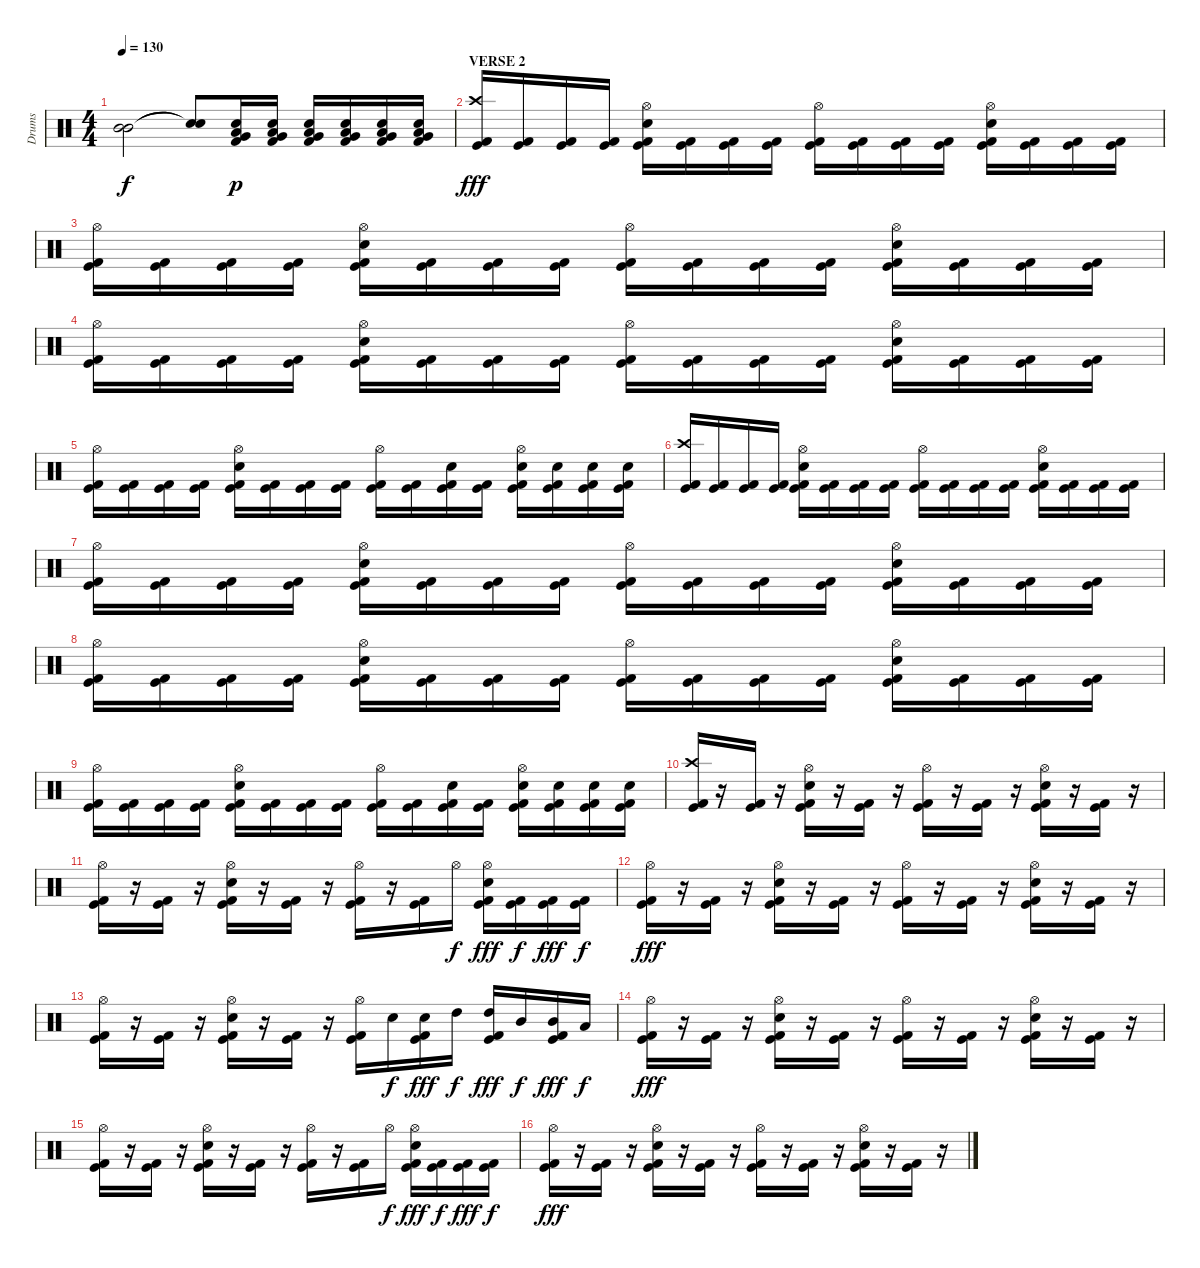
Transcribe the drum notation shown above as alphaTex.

\track ("Drums" "Drums") {instrument percussion}
\staff {score}
\articulation defaults
\ts (4 4)
\tempo 130
\clef neutral
\ks c
("Mid Tom (hit)" "Mid Tom (hit)").2{dy f} ("Snare (hit)"{t} "Snare (hit)"{t}).8 ("Kick (hit) 2" "Electric Snare (hit)" "Low Floor Tom (hit)" "Very Low Tom (hit)").16{dy p} ("Kick (hit) 2" "Electric Snare (hit)" "Low Floor Tom (hit)" "Very Low Tom (hit)").16 ("Kick (hit) 2" "Electric Snare (hit)" "Low Floor Tom (hit)" "Very Low Tom (hit)").16 ("Kick (hit) 2" "Electric Snare (hit)" "Low Floor Tom (hit)" "Very Low Tom (hit)").16 ("Kick (hit) 2" "Electric Snare (hit)" "Low Floor Tom (hit)" "Very Low Tom (hit)").16 ("Kick (hit) 2" "Electric Snare (hit)" "Low Floor Tom (hit)" "Very Low Tom (hit)").16 |
\section ("" "VERSE 2")
("Crash high (hit)" "Kick (hit)" "Kick (hit) 2").16{dy fff} ("Kick (hit)" "Kick (hit) 2").16 ("Kick (hit)" "Kick (hit) 2").16 ("Kick (hit)" "Kick (hit) 2").16 ("Hi-Hat (open)" "Electric Snare (hit)" "Kick (hit)" "Kick (hit) 2").16 ("Kick (hit)" "Kick (hit) 2").16 ("Kick (hit)" "Kick (hit) 2").16 ("Kick (hit)" "Kick (hit) 2").16 ("Hi-Hat (open)" "Kick (hit)" "Kick (hit) 2").16 ("Kick (hit)" "Kick (hit) 2").16 ("Kick (hit)" "Kick (hit) 2").16 ("Kick (hit)" "Kick (hit) 2").16 ("Hi-Hat (open)" "Electric Snare (hit)" "Kick (hit)" "Kick (hit) 2").16 ("Kick (hit)" "Kick (hit) 2").16 ("Kick (hit)" "Kick (hit) 2").16 ("Kick (hit)" "Kick (hit) 2").16 |
("Hi-Hat (open)" "Kick (hit)" "Kick (hit) 2").16 ("Kick (hit)" "Kick (hit) 2").16 ("Kick (hit)" "Kick (hit) 2").16 ("Kick (hit)" "Kick (hit) 2").16 ("Hi-Hat (open)" "Electric Snare (hit)" "Kick (hit)" "Kick (hit) 2").16 ("Kick (hit)" "Kick (hit) 2").16 ("Kick (hit)" "Kick (hit) 2").16 ("Kick (hit)" "Kick (hit) 2").16 ("Hi-Hat (open)" "Kick (hit)" "Kick (hit) 2").16 ("Kick (hit)" "Kick (hit) 2").16 ("Kick (hit)" "Kick (hit) 2").16 ("Kick (hit)" "Kick (hit) 2").16 ("Hi-Hat (open)" "Electric Snare (hit)" "Kick (hit)" "Kick (hit) 2").16 ("Kick (hit)" "Kick (hit) 2").16 ("Kick (hit)" "Kick (hit) 2").16 ("Kick (hit)" "Kick (hit) 2").16 |
("Hi-Hat (open)" "Kick (hit)" "Kick (hit) 2").16 ("Kick (hit)" "Kick (hit) 2").16 ("Kick (hit)" "Kick (hit) 2").16 ("Kick (hit)" "Kick (hit) 2").16 ("Hi-Hat (open)" "Electric Snare (hit)" "Kick (hit)" "Kick (hit) 2").16 ("Kick (hit)" "Kick (hit) 2").16 ("Kick (hit)" "Kick (hit) 2").16 ("Kick (hit)" "Kick (hit) 2").16 ("Hi-Hat (open)" "Kick (hit)" "Kick (hit) 2").16 ("Kick (hit)" "Kick (hit) 2").16 ("Kick (hit)" "Kick (hit) 2").16 ("Kick (hit)" "Kick (hit) 2").16 ("Hi-Hat (open)" "Electric Snare (hit)" "Kick (hit)" "Kick (hit) 2").16 ("Kick (hit)" "Kick (hit) 2").16 ("Kick (hit)" "Kick (hit) 2").16 ("Kick (hit)" "Kick (hit) 2").16 |
("Hi-Hat (open)" "Kick (hit)" "Kick (hit) 2").16 ("Kick (hit)" "Kick (hit) 2").16 ("Kick (hit)" "Kick (hit) 2").16 ("Kick (hit)" "Kick (hit) 2").16 ("Hi-Hat (open)" "Electric Snare (hit)" "Kick (hit)" "Kick (hit) 2").16 ("Kick (hit)" "Kick (hit) 2").16 ("Kick (hit)" "Kick (hit) 2").16 ("Kick (hit)" "Kick (hit) 2").16 ("Hi-Hat (open)" "Kick (hit)" "Kick (hit) 2").16 ("Kick (hit)" "Kick (hit) 2").16 ("Electric Snare (hit)" "Kick (hit)" "Kick (hit) 2").16 ("Kick (hit)" "Kick (hit) 2").16 ("Hi-Hat (open)" "Electric Snare (hit)" "Kick (hit)" "Kick (hit) 2").16 ("Electric Snare (hit)" "Kick (hit)" "Kick (hit) 2").16 ("Electric Snare (hit)" "Kick (hit)" "Kick (hit) 2").16 ("Electric Snare (hit)" "Kick (hit)" "Kick (hit) 2").16 |
("Crash high (hit)" "Kick (hit)" "Kick (hit) 2").16 ("Kick (hit)" "Kick (hit) 2").16 ("Kick (hit)" "Kick (hit) 2").16 ("Kick (hit)" "Kick (hit) 2").16 ("Hi-Hat (open)" "Electric Snare (hit)" "Kick (hit)" "Kick (hit) 2").16 ("Kick (hit)" "Kick (hit) 2").16 ("Kick (hit)" "Kick (hit) 2").16 ("Kick (hit)" "Kick (hit) 2").16 ("Hi-Hat (open)" "Kick (hit)" "Kick (hit) 2").16 ("Kick (hit)" "Kick (hit) 2").16 ("Kick (hit)" "Kick (hit) 2").16 ("Kick (hit)" "Kick (hit) 2").16 ("Hi-Hat (open)" "Electric Snare (hit)" "Kick (hit)" "Kick (hit) 2").16 ("Kick (hit)" "Kick (hit) 2").16 ("Kick (hit)" "Kick (hit) 2").16 ("Kick (hit)" "Kick (hit) 2").16 |
("Hi-Hat (open)" "Kick (hit)" "Kick (hit) 2").16 ("Kick (hit)" "Kick (hit) 2").16 ("Kick (hit)" "Kick (hit) 2").16 ("Kick (hit)" "Kick (hit) 2").16 ("Hi-Hat (open)" "Electric Snare (hit)" "Kick (hit)" "Kick (hit) 2").16 ("Kick (hit)" "Kick (hit) 2").16 ("Kick (hit)" "Kick (hit) 2").16 ("Kick (hit)" "Kick (hit) 2").16 ("Hi-Hat (open)" "Kick (hit)" "Kick (hit) 2").16 ("Kick (hit)" "Kick (hit) 2").16 ("Kick (hit)" "Kick (hit) 2").16 ("Kick (hit)" "Kick (hit) 2").16 ("Hi-Hat (open)" "Electric Snare (hit)" "Kick (hit)" "Kick (hit) 2").16 ("Kick (hit)" "Kick (hit) 2").16 ("Kick (hit)" "Kick (hit) 2").16 ("Kick (hit)" "Kick (hit) 2").16 |
("Hi-Hat (open)" "Kick (hit)" "Kick (hit) 2").16 ("Kick (hit)" "Kick (hit) 2").16 ("Kick (hit)" "Kick (hit) 2").16 ("Kick (hit)" "Kick (hit) 2").16 ("Hi-Hat (open)" "Electric Snare (hit)" "Kick (hit)" "Kick (hit) 2").16 ("Kick (hit)" "Kick (hit) 2").16 ("Kick (hit)" "Kick (hit) 2").16 ("Kick (hit)" "Kick (hit) 2").16 ("Hi-Hat (open)" "Kick (hit)" "Kick (hit) 2").16 ("Kick (hit)" "Kick (hit) 2").16 ("Kick (hit)" "Kick (hit) 2").16 ("Kick (hit)" "Kick (hit) 2").16 ("Hi-Hat (open)" "Electric Snare (hit)" "Kick (hit)" "Kick (hit) 2").16 ("Kick (hit)" "Kick (hit) 2").16 ("Kick (hit)" "Kick (hit) 2").16 ("Kick (hit)" "Kick (hit) 2").16 |
("Hi-Hat (open)" "Kick (hit)" "Kick (hit) 2").16 ("Kick (hit)" "Kick (hit) 2").16 ("Kick (hit)" "Kick (hit) 2").16 ("Kick (hit)" "Kick (hit) 2").16 ("Hi-Hat (open)" "Electric Snare (hit)" "Kick (hit)" "Kick (hit) 2").16 ("Kick (hit)" "Kick (hit) 2").16 ("Kick (hit)" "Kick (hit) 2").16 ("Kick (hit)" "Kick (hit) 2").16 ("Hi-Hat (open)" "Kick (hit)" "Kick (hit) 2").16 ("Kick (hit)" "Kick (hit) 2").16 ("Electric Snare (hit)" "Kick (hit)" "Kick (hit) 2").16 ("Kick (hit)" "Kick (hit) 2").16 ("Hi-Hat (open)" "Electric Snare (hit)" "Kick (hit)" "Kick (hit) 2").16 ("Electric Snare (hit)" "Kick (hit)" "Kick (hit) 2").16 ("Electric Snare (hit)" "Kick (hit)" "Kick (hit) 2").16 ("Electric Snare (hit)" "Kick (hit)" "Kick (hit) 2").16 |
("Crash high (hit)" "Kick (hit)" "Kick (hit) 2").16 r.16 ("Kick (hit)" "Kick (hit) 2").16 r.16 ("Hi-Hat (open)" "Electric Snare (hit)" "Kick (hit)" "Kick (hit) 2").16 r.16 ("Kick (hit)" "Kick (hit) 2").16 r.16 ("Hi-Hat (open)" "Kick (hit)" "Kick (hit) 2").16 r.16 ("Kick (hit)" "Kick (hit) 2").16 r.16 ("Hi-Hat (open)" "Electric Snare (hit)" "Kick (hit)" "Kick (hit) 2").16 r.16 ("Kick (hit)" "Kick (hit) 2").16 r.16 |
("Hi-Hat (open)" "Kick (hit)" "Kick (hit) 2").16 r.16 ("Kick (hit)" "Kick (hit) 2").16 r.16 ("Hi-Hat (open)" "Electric Snare (hit)" "Kick (hit)" "Kick (hit) 2").16 r.16 ("Kick (hit)" "Kick (hit) 2").16 r.16 ("Hi-Hat (open)" "Kick (hit)" "Kick (hit) 2").16 r.16 ("Kick (hit)" "Kick (hit) 2").16 "Hi-Hat (open)".16{dy f} ("Hi-Hat (open)" "Electric Snare (hit)" "Kick (hit)" "Kick (hit) 2").16{dy fff} ("Kick (hit)" "Kick (hit) 2").16{dy f} ("Kick (hit)" "Kick (hit) 2").16{dy fff} ("Kick (hit)" "Kick (hit) 2").16{dy f} |
("Hi-Hat (open)" "Kick (hit)" "Kick (hit) 2").16{dy fff} r.16 ("Kick (hit)" "Kick (hit) 2").16 r.16 ("Hi-Hat (open)" "Electric Snare (hit)" "Kick (hit)" "Kick (hit) 2").16 r.16 ("Kick (hit)" "Kick (hit) 2").16 r.16 ("Hi-Hat (open)" "Kick (hit)" "Kick (hit) 2").16 r.16 ("Kick (hit)" "Kick (hit) 2").16 r.16 ("Hi-Hat (open)" "Electric Snare (hit)" "Kick (hit)" "Kick (hit) 2").16 r.16 ("Kick (hit)" "Kick (hit) 2").16 r.16 |
("Hi-Hat (open)" "Kick (hit)" "Kick (hit) 2").16 r.16 ("Kick (hit)" "Kick (hit) 2").16 r.16 ("Hi-Hat (open)" "Electric Snare (hit)" "Kick (hit)" "Kick (hit) 2").16 r.16 ("Kick (hit)" "Kick (hit) 2").16 r.16 ("Hi-Hat (open)" "Kick (hit)" "Kick (hit) 2").16 "Electric Snare (hit)".16{dy f} ("Electric Snare (hit)" "Kick (hit)" "Kick (hit) 2").16{dy fff} "High Tom (hit)".16{dy f} ("High Tom (hit)" "Kick (hit)" "Kick (hit) 2").16{dy fff} "Mid Tom (hit)".16{dy f} ("Mid Tom (hit)" "Kick (hit)" "Kick (hit) 2").16{dy fff} "Low Tom (hit)".16{dy f} |
("Hi-Hat (open)" "Kick (hit)" "Kick (hit) 2").16{dy fff} r.16 ("Kick (hit)" "Kick (hit) 2").16 r.16 ("Hi-Hat (open)" "Electric Snare (hit)" "Kick (hit)" "Kick (hit) 2").16 r.16 ("Kick (hit)" "Kick (hit) 2").16 r.16 ("Hi-Hat (open)" "Kick (hit)" "Kick (hit) 2").16 r.16 ("Kick (hit)" "Kick (hit) 2").16 r.16 ("Hi-Hat (open)" "Electric Snare (hit)" "Kick (hit)" "Kick (hit) 2").16 r.16 ("Kick (hit)" "Kick (hit) 2").16 r.16 |
("Hi-Hat (open)" "Kick (hit)" "Kick (hit) 2").16 r.16 ("Kick (hit)" "Kick (hit) 2").16 r.16 ("Hi-Hat (open)" "Electric Snare (hit)" "Kick (hit)" "Kick (hit) 2").16 r.16 ("Kick (hit)" "Kick (hit) 2").16 r.16 ("Hi-Hat (open)" "Kick (hit)" "Kick (hit) 2").16 r.16 ("Kick (hit)" "Kick (hit) 2").16 "Hi-Hat (open)".16{dy f} ("Hi-Hat (open)" "Electric Snare (hit)" "Kick (hit)" "Kick (hit) 2").16{dy fff} ("Kick (hit)" "Kick (hit) 2").16{dy f} ("Kick (hit)" "Kick (hit) 2").16{dy fff} ("Kick (hit)" "Kick (hit) 2").16{dy f} |
("Hi-Hat (open)" "Kick (hit)" "Kick (hit) 2").16{dy fff} r.16 ("Kick (hit)" "Kick (hit) 2").16 r.16 ("Hi-Hat (open)" "Electric Snare (hit)" "Kick (hit)" "Kick (hit) 2").16 r.16 ("Kick (hit)" "Kick (hit) 2").16 r.16 ("Hi-Hat (open)" "Kick (hit)" "Kick (hit) 2").16 r.16 ("Kick (hit)" "Kick (hit) 2").16 r.16 ("Hi-Hat (open)" "Electric Snare (hit)" "Kick (hit)" "Kick (hit) 2").16 r.16 ("Kick (hit)" "Kick (hit) 2").16 r.16
